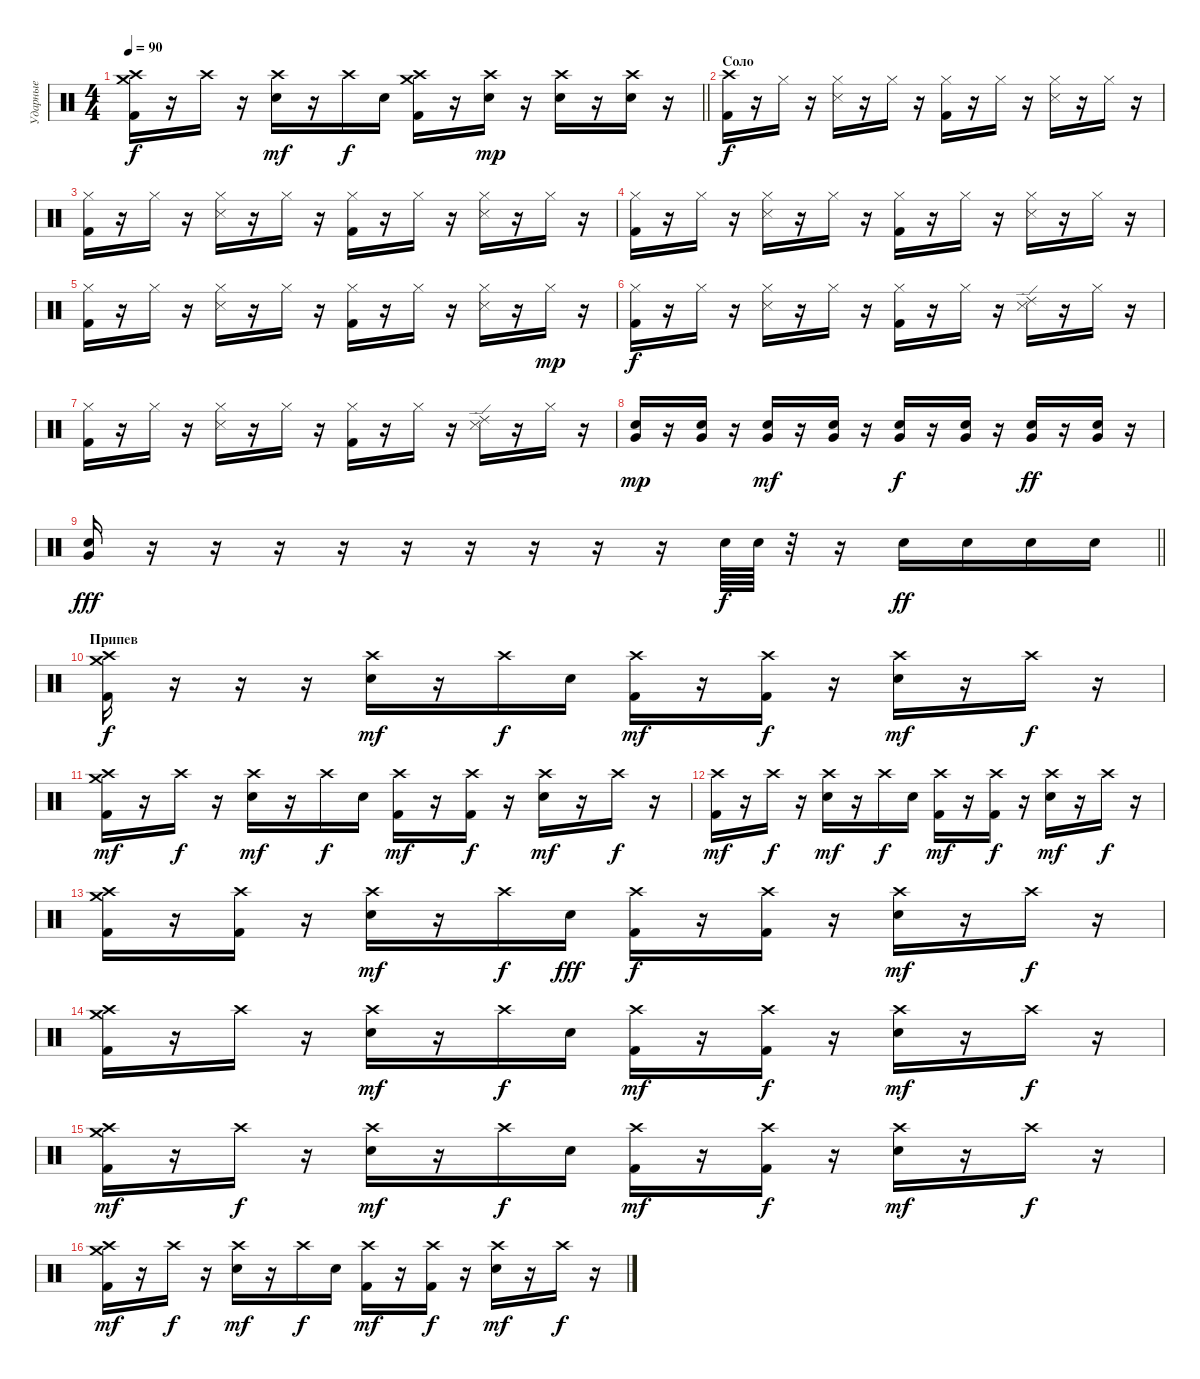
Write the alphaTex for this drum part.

\track ("Ударные" "Ударные") {instrument percussion}
\staff {score}
\articulation defaults
\ts (4 4)
\tempo 90
\clef neutral
\barLineRight lightlight
\ks c
("Crash medium (hit)" "Crash high (hit)" "Kick (hit) 2").16{dy f} r.16 "Crash high (hit)".16 r.16 ("Crash high (hit)" "Electric Snare (hit)").16{dy mf} r.16 "Crash high (hit)".16{dy f} "Electric Snare (hit)".16 ("Crash medium (hit)" "Crash high (hit)" "Kick (hit) 2").16 r.16 ("Crash high (hit)" "Electric Snare (hit)").16{dy mp} r.16 ("Crash high (hit)" "Electric Snare (hit)").16 r.16 ("Crash high (hit)" "Electric Snare (hit)").16 r.16 |
\section ("" "Соло")
("Crash high (hit)" "Kick (hit) 2").16{dy f} r.16 "Hi-Hat (closed)".16 r.16 ("Hi-Hat (closed)" "Snare (side stick) 3").16 r.16 "Hi-Hat (closed)".16 r.16 ("Hi-Hat (closed)" "Kick (hit) 2").16 r.16 "Hi-Hat (closed)".16 r.16 ("Hi-Hat (closed)" "Snare (side stick) 3").16 r.16 "Hi-Hat (closed)".16 r.16 |
("Hi-Hat (closed)" "Kick (hit) 2").16 r.16 "Hi-Hat (closed)".16 r.16 ("Hi-Hat (closed)" "Snare (side stick) 3").16 r.16 "Hi-Hat (closed)".16 r.16 ("Hi-Hat (closed)" "Kick (hit) 2").16 r.16 "Hi-Hat (closed)".16 r.16 ("Hi-Hat (closed)" "Snare (side stick) 3").16 r.16 "Hi-Hat (closed)".16 r.16 |
("Hi-Hat (closed)" "Kick (hit) 2").16 r.16 "Hi-Hat (closed)".16 r.16 ("Hi-Hat (closed)" "Snare (side stick) 3").16 r.16 "Hi-Hat (closed)".16 r.16 ("Hi-Hat (closed)" "Kick (hit) 2").16 r.16 "Hi-Hat (closed)".16 r.16 ("Hi-Hat (closed)" "Snare (side stick) 3").16 r.16 "Hi-Hat (closed)".16 r.16 |
("Hi-Hat (closed)" "Kick (hit) 2").16 r.16 "Hi-Hat (closed)".16 r.16 ("Hi-Hat (closed)" "Snare (side stick) 3").16 r.16 "Hi-Hat (closed)".16 r.16 ("Hi-Hat (closed)" "Kick (hit) 2").16 r.16 "Hi-Hat (closed)".16 r.16 ("Hi-Hat (closed)" "Snare (side stick) 3").16 r.16 "Hi-Hat (closed)".16{dy mp} r.16 |
("Hi-Hat (closed)" "Kick (hit) 2").16{dy f} r.16 "Hi-Hat (closed)".16 r.16 ("Hi-Hat (closed)" "Snare (side stick) 3").16 r.16 "Hi-Hat (closed)".16 r.16 ("Hi-Hat (closed)" "Kick (hit) 2").16 r.16 "Hi-Hat (closed)".16 r.16 ("Ride (edge) 2" "Snare (side stick) 3").16 r.16 "Hi-Hat (closed)".16 r.16 |
("Hi-Hat (closed)" "Kick (hit) 2").16 r.16 "Hi-Hat (closed)".16 r.16 ("Hi-Hat (closed)" "Snare (side stick) 3").16 r.16 "Hi-Hat (closed)".16 r.16 ("Hi-Hat (closed)" "Kick (hit) 2").16 r.16 "Hi-Hat (closed)".16 r.16 ("Ride (edge) 2" "Snare (side stick) 3").16 r.16 "Hi-Hat (closed)".16 r.16 |
("Very Low Tom (hit)" "Electric Snare (hit)").16{dy mp} r.16 ("Very Low Tom (hit)" "Electric Snare (hit)").16 r.16 ("Very Low Tom (hit)" "Electric Snare (hit)").16{dy mf} r.16 ("Very Low Tom (hit)" "Electric Snare (hit)").16 r.16 ("Very Low Tom (hit)" "Electric Snare (hit)").16{dy f} r.16 ("Very Low Tom (hit)" "Electric Snare (hit)").16 r.16 ("Very Low Tom (hit)" "Electric Snare (hit)").16{dy ff} r.16 ("Very Low Tom (hit)" "Electric Snare (hit)").16 r.16 |
\barLineRight lightlight
("Very Low Tom (hit)" "Electric Snare (hit)").16{dy fff} r.16 r.16 r.16 r.16 r.16 r.16 r.16 r.16 r.16 "Electric Snare (hit)".64{dy f} "Electric Snare (hit)".64 r.32 r.16 "Electric Snare (hit)".16{dy ff} "Electric Snare (hit)".16 "Electric Snare (hit)".16 "Electric Snare (hit)".16 |
\section ("" "Припев")
("Crash medium (hit)" "Crash high (hit)" "Kick (hit) 2").16{dy f} r.16 r.16 r.16 ("Crash high (hit)" "Electric Snare (hit)").16{dy mf} r.16 "Crash high (hit)".16{dy f} "Electric Snare (hit)".16 ("Crash high (hit)" "Kick (hit) 2").16{dy mf} r.16 ("Crash high (hit)" "Kick (hit) 2").16{dy f} r.16 ("Crash high (hit)" "Electric Snare (hit)").16{dy mf} r.16 "Crash high (hit)".16{dy f} r.16 |
("Crash medium (hit)" "Crash high (hit)" "Kick (hit) 2").16{dy mf} r.16 "Crash high (hit)".16{dy f} r.16 ("Crash high (hit)" "Electric Snare (hit)").16{dy mf} r.16 "Crash high (hit)".16{dy f} "Electric Snare (hit)".16 ("Crash high (hit)" "Kick (hit) 2").16{dy mf} r.16 ("Crash high (hit)" "Kick (hit) 2").16{dy f} r.16 ("Crash high (hit)" "Electric Snare (hit)").16{dy mf} r.16 "Crash high (hit)".16{dy f} r.16 |
("Crash high (hit)" "Kick (hit) 2").16{dy mf} r.16 "Crash high (hit)".16{dy f} r.16 ("Crash high (hit)" "Electric Snare (hit)").16{dy mf} r.16 "Crash high (hit)".16{dy f} "Electric Snare (hit)".16 ("Crash high (hit)" "Kick (hit) 2").16{dy mf} r.16 ("Crash high (hit)" "Kick (hit) 2").16{dy f} r.16 ("Crash high (hit)" "Electric Snare (hit)").16{dy mf} r.16 "Crash high (hit)".16{dy f} r.16 |
("Crash medium (hit)" "Crash high (hit)" "Kick (hit) 2").16 r.16 ("Crash high (hit)" "Kick (hit) 2").16 r.16 ("Crash high (hit)" "Electric Snare (hit)").16{dy mf} r.16 "Crash high (hit)".16{dy f} "Electric Snare (hit)".16{dy fff} ("Crash high (hit)" "Kick (hit) 2").16{dy f} r.16 ("Crash high (hit)" "Kick (hit) 2").16 r.16 ("Crash high (hit)" "Electric Snare (hit)").16{dy mf} r.16 "Crash high (hit)".16{dy f} r.16 |
("Crash medium (hit)" "Crash high (hit)" "Kick (hit) 2").16 r.16 "Crash high (hit)".16 r.16 ("Crash high (hit)" "Electric Snare (hit)").16{dy mf} r.16 "Crash high (hit)".16{dy f} "Electric Snare (hit)".16 ("Crash high (hit)" "Kick (hit) 2").16{dy mf} r.16 ("Crash high (hit)" "Kick (hit) 2").16{dy f} r.16 ("Crash high (hit)" "Electric Snare (hit)").16{dy mf} r.16 "Crash high (hit)".16{dy f} r.16 |
("Crash medium (hit)" "Crash high (hit)" "Kick (hit) 2").16{dy mf} r.16 "Crash high (hit)".16{dy f} r.16 ("Crash high (hit)" "Electric Snare (hit)").16{dy mf} r.16 "Crash high (hit)".16{dy f} "Electric Snare (hit)".16 ("Crash high (hit)" "Kick (hit) 2").16{dy mf} r.16 ("Crash high (hit)" "Kick (hit) 2").16{dy f} r.16 ("Crash high (hit)" "Electric Snare (hit)").16{dy mf} r.16 "Crash high (hit)".16{dy f} r.16 |
("Crash medium (hit)" "Crash high (hit)" "Kick (hit) 2").16{dy mf} r.16 "Crash high (hit)".16{dy f} r.16 ("Crash high (hit)" "Electric Snare (hit)").16{dy mf} r.16 "Crash high (hit)".16{dy f} "Electric Snare (hit)".16 ("Crash high (hit)" "Kick (hit) 2").16{dy mf} r.16 ("Crash high (hit)" "Kick (hit) 2").16{dy f} r.16 ("Crash high (hit)" "Electric Snare (hit)").16{dy mf} r.16 "Crash high (hit)".16{dy f} r.16
